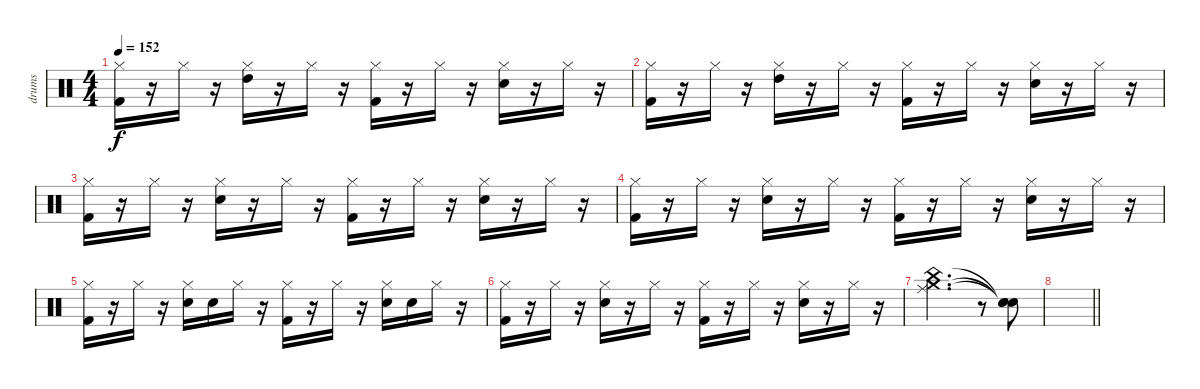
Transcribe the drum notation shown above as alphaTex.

\track ("drums" "drums") {instrument percussion}
\staff {score}
\articulation defaults
\ts (4 4)
\tempo 152
\clef neutral
\ks c
("Hi-Hat (closed)" "Kick (hit) 2").16{dy f} r.16 "Hi-Hat (closed)".16 r.16 ("Hi-Hat (closed)" "High Tom (hit)").16 r.16 "Hi-Hat (closed)".16 r.16 ("Hi-Hat (closed)" "Kick (hit) 2").16 r.16 "Hi-Hat (closed)".16 r.16 ("Hi-Hat (closed)" "Electric Snare (hit)").16 r.16 "Hi-Hat (closed)".16 r.16 |
("Hi-Hat (closed)" "Kick (hit) 2").16 r.16 "Hi-Hat (closed)".16 r.16 ("Hi-Hat (closed)" "High Tom (hit)").16 r.16 "Hi-Hat (closed)".16 r.16 ("Hi-Hat (closed)" "Kick (hit) 2").16 r.16 "Hi-Hat (closed)".16 r.16 ("Hi-Hat (closed)" "Electric Snare (hit)").16 r.16 "Hi-Hat (closed)".16 r.16 |
("Hi-Hat (closed)" "Kick (hit) 2").16 r.16 "Hi-Hat (closed)".16 r.16 ("Hi-Hat (closed)" "Electric Snare (hit)").16 r.16 "Hi-Hat (closed)".16 r.16 ("Hi-Hat (closed)" "Kick (hit) 2").16 r.16 "Hi-Hat (closed)".16 r.16 ("Hi-Hat (closed)" "Electric Snare (hit)").16 r.16 "Hi-Hat (closed)".16 r.16 |
("Hi-Hat (closed)" "Kick (hit) 2").16 r.16 "Hi-Hat (closed)".16 r.16 ("Hi-Hat (closed)" "Electric Snare (hit)").16 r.16 "Hi-Hat (closed)".16 r.16 ("Hi-Hat (closed)" "Kick (hit) 2").16 r.16 "Hi-Hat (closed)".16 r.16 ("Hi-Hat (closed)" "Electric Snare (hit)").16 r.16 "Hi-Hat (closed)".16 r.16 |
("Hi-Hat (closed)" "Kick (hit) 2").16 r.16 "Hi-Hat (closed)".16 r.16 ("Hi-Hat (closed)" "Electric Snare (hit)").16 "Electric Snare (hit)".16 "Hi-Hat (closed)".16 r.16 ("Hi-Hat (closed)" "Kick (hit) 2").16 r.16 "Hi-Hat (closed)".16 r.16 ("Hi-Hat (closed)" "Electric Snare (hit)").16 "Electric Snare (hit)".16 "Hi-Hat (closed)".16 r.16 |
("Hi-Hat (closed)" "Kick (hit) 2").16 r.16 "Hi-Hat (closed)".16 r.16 ("Hi-Hat (closed)" "Electric Snare (hit)").16 r.16 "Hi-Hat (closed)".16 r.16 ("Hi-Hat (closed)" "Kick (hit) 2").16 r.16 "Hi-Hat (closed)".16 r.16 ("Hi-Hat (closed)" "Electric Snare (hit)").16 r.16 "Hi-Hat (closed)".16 r.16 |
("China (hit)" "Ride (middle)" "Crash medium (hit)").2{d} r.8 ("Snare (hit)"{t} "Snare (hit)"{t} "Snare (hit)"{t}).8 |
\barLineRight lightlight
